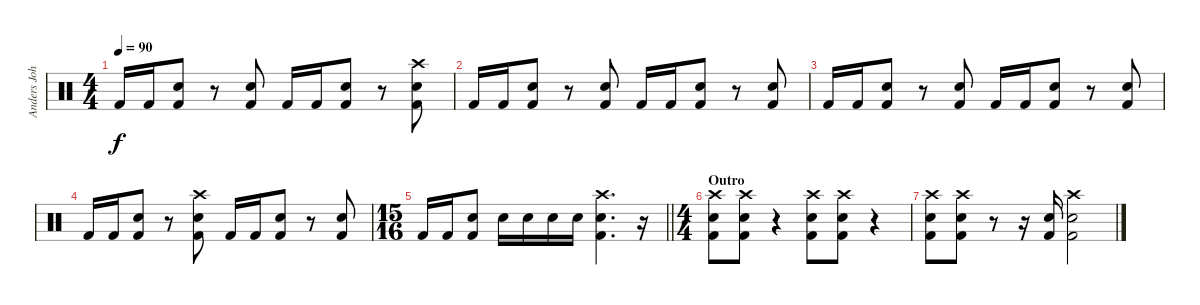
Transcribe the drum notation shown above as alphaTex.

\track ("Anders Johansson Drums" "Anders Joh") {instrument percussion}
\staff {score}
\articulation defaults
\ts (4 4)
\tempo 90
\clef neutral
\ks c "Kick (hit) 2".16{dy f} "Kick (hit) 2".16
("Electric Snare (hit)" "Kick (hit) 2").8 r.8 ("Electric Snare (hit)" "Kick (hit) 2").8 "Kick (hit) 2".16 "Kick (hit) 2".16 ("Electric Snare (hit)" "Kick (hit) 2").8 r.8 ("Crash high (hit)" "Electric Snare (hit)" "Kick (hit) 2").8 |
"Kick (hit) 2".16 "Kick (hit) 2".16 ("Electric Snare (hit)" "Kick (hit) 2").8 r.8 ("Electric Snare (hit)" "Kick (hit) 2").8 "Kick (hit) 2".16 "Kick (hit) 2".16 ("Electric Snare (hit)" "Kick (hit) 2").8 r.8 ("Electric Snare (hit)" "Kick (hit) 2").8 |
"Kick (hit) 2".16 "Kick (hit) 2".16 ("Electric Snare (hit)" "Kick (hit) 2").8 r.8 ("Electric Snare (hit)" "Kick (hit) 2").8 "Kick (hit) 2".16 "Kick (hit) 2".16 ("Electric Snare (hit)" "Kick (hit) 2").8 r.8 ("Electric Snare (hit)" "Kick (hit) 2").8 |
"Kick (hit) 2".16 "Kick (hit) 2".16 ("Electric Snare (hit)" "Kick (hit) 2").8 r.8 ("Crash high (hit)" "Electric Snare (hit)" "Kick (hit) 2").8 "Kick (hit) 2".16 "Kick (hit) 2".16 ("Electric Snare (hit)" "Kick (hit) 2").8 r.8 ("Electric Snare (hit)" "Kick (hit) 2").8 |
\ts (15 16)
\barLineRight lightlight "Kick (hit) 2".16 "Kick (hit) 2".16
("Electric Snare (hit)" "Kick (hit) 2").8 "Electric Snare (hit)".16 "Electric Snare (hit)".16 "Electric Snare (hit)".16 "Electric Snare (hit)".16 ("Crash high (hit)" "Electric Snare (hit)" "Kick (hit) 2").4{d} r.16 |
\ts (4 4)
\section ("" "Outro")
("Crash high (hit)" "Electric Snare (hit)" "Kick (hit) 2").8 ("Crash high (hit)" "Electric Snare (hit)" "Kick (hit) 2").8 r.4 ("Crash high (hit)" "Electric Snare (hit)" "Kick (hit) 2").8 ("Crash high (hit)" "Electric Snare (hit)" "Kick (hit) 2").8 r.4 |
("Crash high (hit)" "Electric Snare (hit)" "Kick (hit) 2").8 ("Crash high (hit)" "Electric Snare (hit)" "Kick (hit) 2").8 r.8 r.16 ("Snare (hit) 2" "Kick (hit) 2").16 ("Crash high (hit)" "Electric Snare (hit)" "Kick (hit) 2").2
